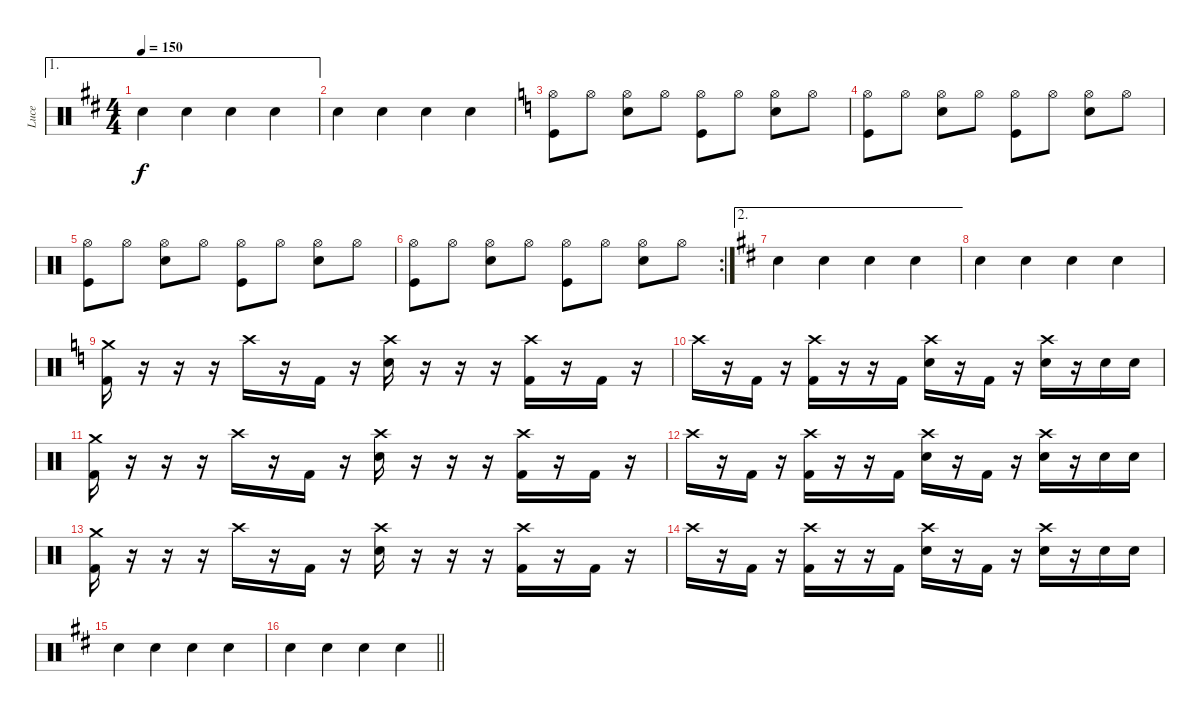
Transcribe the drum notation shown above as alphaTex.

\track ("Luce" "Luce") {instrument percussion}
\staff {score}
\articulation defaults
\ae 1
\ts (4 4)
\tempo 150
\clef neutral
\ks d "Snare (hit) 2".4{dy f} "Snare (hit) 2".4 "Snare (hit) 2".4 "Snare (hit) 2".4
|
"Snare (hit) 2".4 "Snare (hit) 2".4 "Snare (hit) 2".4 "Snare (hit) 2".4 |
\ks c
("Hi-Hat (open)" "Kick (hit)").8 "Hi-Hat (open)".8 ("Hi-Hat (open)" "Snare (hit) 2").8 "Hi-Hat (open)".8 ("Hi-Hat (open)" "Kick (hit)").8 "Hi-Hat (open)".8 ("Hi-Hat (open)" "Snare (hit) 2").8 "Hi-Hat (open)".8 |
("Hi-Hat (open)" "Kick (hit)").8 "Hi-Hat (open)".8 ("Hi-Hat (open)" "Snare (hit) 2").8 "Hi-Hat (open)".8 ("Hi-Hat (open)" "Kick (hit)").8 "Hi-Hat (open)".8 ("Hi-Hat (open)" "Snare (hit) 2").8 "Hi-Hat (open)".8 |
("Hi-Hat (open)" "Kick (hit)").8 "Hi-Hat (open)".8 ("Hi-Hat (open)" "Snare (hit) 2").8 "Hi-Hat (open)".8 ("Hi-Hat (open)" "Kick (hit)").8 "Hi-Hat (open)".8 ("Hi-Hat (open)" "Snare (hit) 2").8 "Hi-Hat (open)".8 |
\rc 2
("Hi-Hat (open)" "Kick (hit)").8 "Hi-Hat (open)".8 ("Hi-Hat (open)" "Snare (hit) 2").8 "Hi-Hat (open)".8 ("Hi-Hat (open)" "Kick (hit)").8 "Hi-Hat (open)".8 ("Hi-Hat (open)" "Snare (hit) 2").8 "Hi-Hat (open)".8 |
\ae 2
\ks d "Snare (hit) 2".4 "Snare (hit) 2".4 "Snare (hit) 2".4 "Snare (hit) 2".4
|
"Snare (hit) 2".4 "Snare (hit) 2".4 "Snare (hit) 2".4 "Snare (hit) 2".4 |
\ks c
("Crash medium (hit)" "Kick (hit) 2").16 r.16 r.16 r.16 "Crash high (hit)".16 r.16 "Kick (hit) 2".16 r.16 ("Crash high (hit)" "Electric Snare (hit)").16 r.16 r.16 r.16 ("Crash high (hit)" "Kick (hit) 2").16 r.16 "Kick (hit) 2".16 r.16 |
"Crash high (hit)".16 r.16 "Kick (hit) 2".16 r.16 ("Crash high (hit)" "Kick (hit) 2").16 r.16 r.16 "Kick (hit) 2".16 ("Crash high (hit)" "Electric Snare (hit)").16 r.16 "Kick (hit) 2".16 r.16 ("Crash high (hit)" "Electric Snare (hit)").16 r.16 "Electric Snare (hit)".16 "Electric Snare (hit)".16 |
("Crash medium (hit)" "Kick (hit) 2").16 r.16 r.16 r.16 "Crash high (hit)".16 r.16 "Kick (hit) 2".16 r.16 ("Crash high (hit)" "Electric Snare (hit)").16 r.16 r.16 r.16 ("Crash high (hit)" "Kick (hit) 2").16 r.16 "Kick (hit) 2".16 r.16 |
"Crash high (hit)".16 r.16 "Kick (hit) 2".16 r.16 ("Crash high (hit)" "Kick (hit) 2").16 r.16 r.16 "Kick (hit) 2".16 ("Crash high (hit)" "Electric Snare (hit)").16 r.16 "Kick (hit) 2".16 r.16 ("Crash high (hit)" "Electric Snare (hit)").16 r.16 "Electric Snare (hit)".16 "Electric Snare (hit)".16 |
("Crash medium (hit)" "Kick (hit) 2").16 r.16 r.16 r.16 "Crash high (hit)".16 r.16 "Kick (hit) 2".16 r.16 ("Crash high (hit)" "Electric Snare (hit)").16 r.16 r.16 r.16 ("Crash high (hit)" "Kick (hit) 2").16 r.16 "Kick (hit) 2".16 r.16 |
"Crash high (hit)".16 r.16 "Kick (hit) 2".16 r.16 ("Crash high (hit)" "Kick (hit) 2").16 r.16 r.16 "Kick (hit) 2".16 ("Crash high (hit)" "Electric Snare (hit)").16 r.16 "Kick (hit) 2".16 r.16 ("Crash high (hit)" "Electric Snare (hit)").16 r.16 "Electric Snare (hit)".16 "Electric Snare (hit)".16 |
\ks d "Snare (hit) 2".4 "Snare (hit) 2".4 "Snare (hit) 2".4 "Snare (hit) 2".4
|
\barLineRight lightlight "Snare (hit) 2".4 "Snare (hit) 2".4 "Snare (hit) 2".4 "Snare (hit) 2".4
